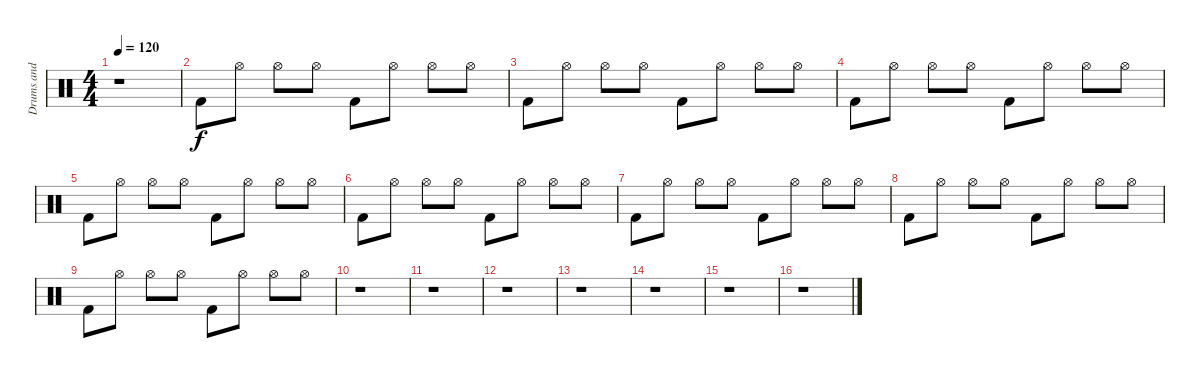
\track ("Drums and Percussion" "Drums and ") {instrument percussion}
\staff {score}
\articulation defaults
\ts (4 4)
\tempo 120
\clef neutral
\ks c
r.1{dy f} |
"Kick (hit) 2".8 "Hi-Hat (open)".8 "Hi-Hat (open)".8 "Hi-Hat (open)".8 "Kick (hit) 2".8 "Hi-Hat (open)".8 "Hi-Hat (open)".8 "Hi-Hat (open)".8 |
"Kick (hit) 2".8 "Hi-Hat (open)".8 "Hi-Hat (open)".8 "Hi-Hat (open)".8 "Kick (hit) 2".8 "Hi-Hat (open)".8 "Hi-Hat (open)".8 "Hi-Hat (open)".8 |
"Kick (hit) 2".8 "Hi-Hat (open)".8 "Hi-Hat (open)".8 "Hi-Hat (open)".8 "Kick (hit) 2".8 "Hi-Hat (open)".8 "Hi-Hat (open)".8 "Hi-Hat (open)".8 |
"Kick (hit) 2".8 "Hi-Hat (open)".8 "Hi-Hat (open)".8 "Hi-Hat (open)".8 "Kick (hit) 2".8 "Hi-Hat (open)".8 "Hi-Hat (open)".8 "Hi-Hat (open)".8 |
"Kick (hit) 2".8 "Hi-Hat (open)".8 "Hi-Hat (open)".8 "Hi-Hat (open)".8 "Kick (hit) 2".8 "Hi-Hat (open)".8 "Hi-Hat (open)".8 "Hi-Hat (open)".8 |
"Kick (hit) 2".8 "Hi-Hat (open)".8 "Hi-Hat (open)".8 "Hi-Hat (open)".8 "Kick (hit) 2".8 "Hi-Hat (open)".8 "Hi-Hat (open)".8 "Hi-Hat (open)".8 |
"Kick (hit) 2".8 "Hi-Hat (open)".8 "Hi-Hat (open)".8 "Hi-Hat (open)".8 "Kick (hit) 2".8 "Hi-Hat (open)".8 "Hi-Hat (open)".8 "Hi-Hat (open)".8 |
"Kick (hit) 2".8 "Hi-Hat (open)".8 "Hi-Hat (open)".8 "Hi-Hat (open)".8 "Kick (hit) 2".8 "Hi-Hat (open)".8 "Hi-Hat (open)".8 "Hi-Hat (open)".8 |
r.1 |
r.1 |
r.1 |
r.1 |
r.1 |
r.1 |
r.1
